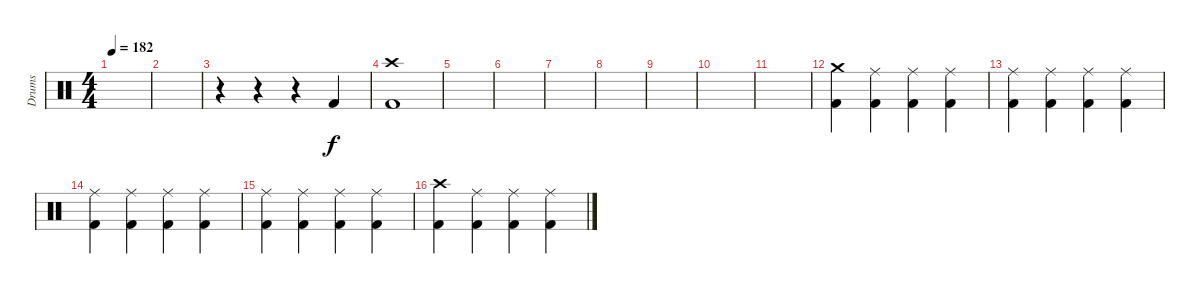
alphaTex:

\track ("Drums" "Drums") {instrument percussion}
\staff {score}
\articulation defaults
\ts (4 4)
\tempo 182
\clef neutral
\ks c
|
|
r.4 r.4 r.4 "Kick (hit) 2".4 |
("Crash high (hit)" "Kick (hit) 2").1 |
|
|
|
|
|
|
|
("Crash medium (hit)" "Kick (hit) 2").4 ("Ride (middle)" "Kick (hit) 2").4 ("Ride (middle)" "Kick (hit) 2").4 ("Ride (middle)" "Kick (hit) 2").4 |
("Ride (middle)" "Kick (hit) 2").4 ("Ride (middle)" "Kick (hit) 2").4 ("Ride (middle)" "Kick (hit) 2").4 ("Ride (middle)" "Kick (hit) 2").4 |
("Ride (middle)" "Kick (hit) 2").4 ("Ride (middle)" "Kick (hit) 2").4 ("Ride (middle)" "Kick (hit) 2").4 ("Ride (middle)" "Kick (hit) 2").4 |
("Ride (middle)" "Kick (hit) 2").4 ("Ride (middle)" "Kick (hit) 2").4 ("Ride (middle)" "Kick (hit) 2").4 ("Ride (middle)" "Kick (hit) 2").4 |
("Crash high (hit)" "Kick (hit) 2").4 ("Ride (middle)" "Kick (hit) 2").4 ("Ride (middle)" "Kick (hit) 2").4 ("Ride (middle)" "Kick (hit) 2").4
